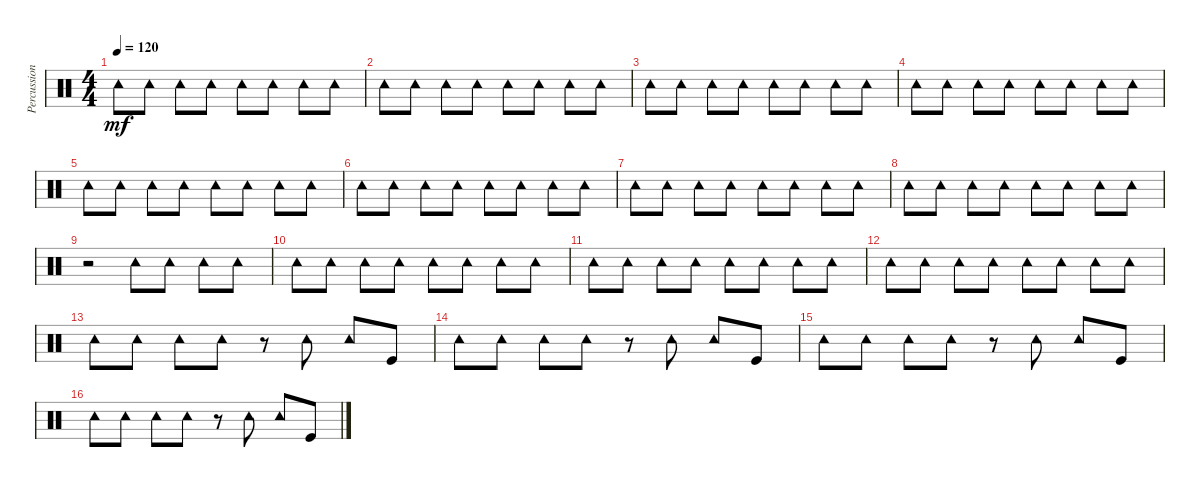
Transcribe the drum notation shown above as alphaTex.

\track ("Percussions" "Percussion") {instrument percussion}
\staff {score}
\articulation defaults
\ts (4 4)
\tempo 120
\clef neutral
\ks c "Tambourine (hit)".8{dy mf} "Tambourine (hit)".8 "Tambourine (hit)".8 "Tambourine (hit)".8 "Tambourine (hit)".8 "Tambourine (hit)".8 "Tambourine (hit)".8 "Tambourine (hit)".8
|
"Tambourine (hit)".8 "Tambourine (hit)".8 "Tambourine (hit)".8 "Tambourine (hit)".8 "Tambourine (hit)".8 "Tambourine (hit)".8 "Tambourine (hit)".8 "Tambourine (hit)".8 |
"Tambourine (hit)".8 "Tambourine (hit)".8 "Tambourine (hit)".8 "Tambourine (hit)".8 "Tambourine (hit)".8 "Tambourine (hit)".8 "Tambourine (hit)".8 "Tambourine (hit)".8 |
"Tambourine (hit)".8 "Tambourine (hit)".8 "Tambourine (hit)".8 "Tambourine (hit)".8 "Tambourine (hit)".8 "Tambourine (hit)".8 "Tambourine (hit)".8 "Tambourine (hit)".8 |
"Tambourine (hit)".8 "Tambourine (hit)".8 "Tambourine (hit)".8 "Tambourine (hit)".8 "Tambourine (hit)".8 "Tambourine (hit)".8 "Tambourine (hit)".8 "Tambourine (hit)".8 |
"Tambourine (hit)".8 "Tambourine (hit)".8 "Tambourine (hit)".8 "Tambourine (hit)".8 "Tambourine (hit)".8 "Tambourine (hit)".8 "Tambourine (hit)".8 "Tambourine (hit)".8 |
"Tambourine (hit)".8 "Tambourine (hit)".8 "Tambourine (hit)".8 "Tambourine (hit)".8 "Tambourine (hit)".8 "Tambourine (hit)".8 "Tambourine (hit)".8 "Tambourine (hit)".8 |
"Tambourine (hit)".8 "Tambourine (hit)".8 "Tambourine (hit)".8 "Tambourine (hit)".8 "Tambourine (hit)".8 "Tambourine (hit)".8 "Tambourine (hit)".8 "Tambourine (hit)".8 |
r.2 "Tambourine (hit)".8 "Tambourine (hit)".8 "Tambourine (hit)".8 "Tambourine (hit)".8 |
"Tambourine (hit)".8 "Tambourine (hit)".8 "Tambourine (hit)".8 "Tambourine (hit)".8 "Tambourine (hit)".8 "Tambourine (hit)".8 "Tambourine (hit)".8 "Tambourine (hit)".8 |
"Tambourine (hit)".8 "Tambourine (hit)".8 "Tambourine (hit)".8 "Tambourine (hit)".8 "Tambourine (hit)".8 "Tambourine (hit)".8 "Tambourine (hit)".8 "Tambourine (hit)".8 |
"Tambourine (hit)".8 "Tambourine (hit)".8 "Tambourine (hit)".8 "Tambourine (hit)".8 "Tambourine (hit)".8 "Tambourine (hit)".8 "Tambourine (hit)".8 "Tambourine (hit)".8 |
"Tambourine (hit)".8 "Tambourine (hit)".8 "Tambourine (hit)".8 "Tambourine (hit)".8 r.8 "Tambourine (hit)".8 "Tambourine (hit)".8 "Kick (hit)".8 |
"Tambourine (hit)".8 "Tambourine (hit)".8 "Tambourine (hit)".8 "Tambourine (hit)".8 r.8 "Tambourine (hit)".8 "Tambourine (hit)".8 "Kick (hit)".8 |
"Tambourine (hit)".8 "Tambourine (hit)".8 "Tambourine (hit)".8 "Tambourine (hit)".8 r.8 "Tambourine (hit)".8 "Tambourine (hit)".8 "Kick (hit)".8 |
"Tambourine (hit)".8 "Tambourine (hit)".8 "Tambourine (hit)".8 "Tambourine (hit)".8 r.8 "Tambourine (hit)".8 "Tambourine (hit)".8 "Kick (hit)".8
